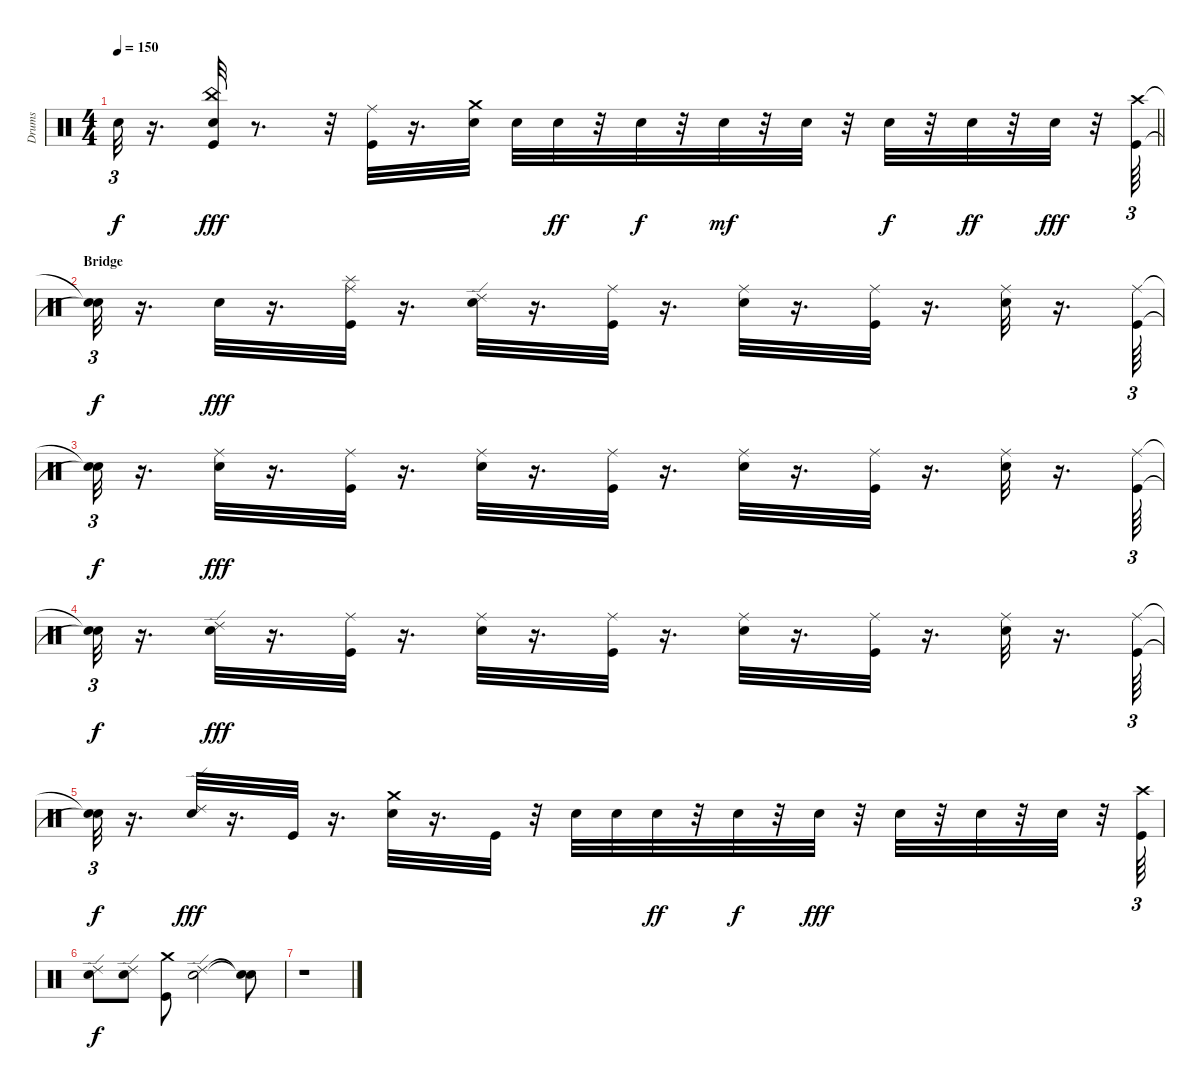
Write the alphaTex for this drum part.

\track ("Drums" "Drums") {instrument percussion}
\staff {score}
\articulation defaults
\ts (4 4)
\tempo 150
\clef neutral
\barLineRight lightlight
\ks c "Snare (hit)"{t}.32{tu (3 2) dy f}
r.16{d} ("Electric Snare (hit)" "China (hit)" "Kick (hit)").32{dy fff} r.8{d} r.32 ("Kick (hit)" "Ride (middle)").32 r.16{d} ("Electric Snare (hit)" "Crash medium (hit)").32 "Electric Snare (hit)".32 "Electric Snare (hit)".32{dy ff} r.32 "Electric Snare (hit)".32{dy f} r.32 "Electric Snare (hit)".32{dy mf} r.32 "Electric Snare (hit)".32 r.32 "Electric Snare (hit)".32{dy f} r.32 "Electric Snare (hit)".32{dy ff} r.32 "Electric Snare (hit)".32{dy fff} r.32 ("Kick (hit)" "Crash high (hit)").64{tu (3 2)} |
\section ("" "Bridge")
("Snare (hit)"{t} "Snare (hit)"{t}).32{tu (3 2) dy f} r.16{d} "Electric Snare (hit)".32{dy fff} r.16{d} ("Kick (hit)" "Ride (middle)" "Splash (hit)").32 r.16{d} ("Electric Snare (hit)" "Ride (edge) 2").32 r.16{d} ("Kick (hit)" "Ride (middle)").32 r.16{d} ("Electric Snare (hit)" "Ride (middle)").32 r.16{d} ("Kick (hit)" "Ride (middle)").32 r.16{d} ("Electric Snare (hit)" "Ride (middle)").32 r.16{d} ("Kick (hit)" "Ride (middle)").64{tu (3 2)} |
("Snare (hit)"{t} "Snare (hit)"{t}).32{tu (3 2) dy f} r.16{d} ("Electric Snare (hit)" "Ride (middle)").32{dy fff} r.16{d} ("Kick (hit)" "Ride (middle)").32 r.16{d} ("Electric Snare (hit)" "Ride (middle)").32 r.16{d} ("Kick (hit)" "Ride (middle)").32 r.16{d} ("Electric Snare (hit)" "Ride (middle)").32 r.16{d} ("Kick (hit)" "Ride (middle)").32 r.16{d} ("Electric Snare (hit)" "Ride (middle)").32 r.16{d} ("Ride (middle)" "Kick (hit)").64{tu (3 2)} |
("Snare (hit)"{t} "Snare (hit)"{t}).32{tu (3 2) dy f} r.16{d} ("Electric Snare (hit)" "Ride (edge) 2").32{dy fff} r.16{d} ("Kick (hit)" "Ride (middle)").32 r.16{d} ("Electric Snare (hit)" "Ride (middle)").32 r.16{d} ("Kick (hit)" "Ride (middle)").32 r.16{d} ("Electric Snare (hit)" "Ride (middle)").32 r.16{d} ("Kick (hit)" "Ride (middle)").32 r.16{d} ("Electric Snare (hit)" "Ride (middle)").32 r.16{d} ("Kick (hit)" "Ride (middle)").64{tu (3 2)} |
("Snare (hit)"{t} "Snare (hit)"{t}).32{tu (3 2) dy f} r.16{d} ("Electric Snare (hit)" "Ride (edge) 2").32{dy fff} r.16{d} "Kick (hit)".32 r.16{d} ("Electric Snare (hit)" "Crash medium (hit)").32 r.16{d} "Kick (hit)".32 r.32 "Electric Snare (hit)".32 "Electric Snare (hit)".32 "Electric Snare (hit)".32{dy ff} r.32 "Electric Snare (hit)".32{dy f} r.32 "Electric Snare (hit)".32{dy fff} r.32 "Electric Snare (hit)".32 r.32 "Electric Snare (hit)".32 r.32 "Electric Snare (hit)".32 r.32 ("Kick (hit)" "Crash high (hit)").64{tu (3 2)} |
("Electric Snare (hit)" "Ride (edge) 2").8{dy f} ("Electric Snare (hit)" "Ride (edge) 2").8 ("Kick (hit)" "Crash medium (hit)").8 ("Electric Snare (hit)" "Ride (edge) 2").2 ("Snare (hit)"{t} "Snare (hit)"{t}).8 |
r.1
